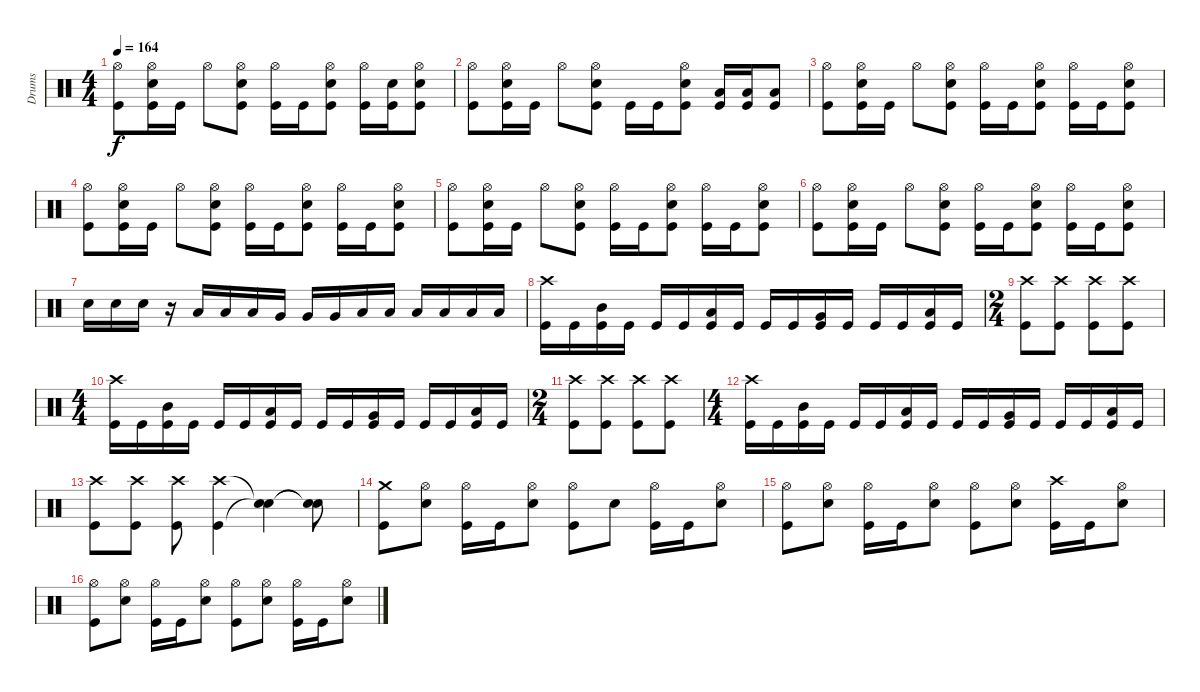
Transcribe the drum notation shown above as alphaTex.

\track ("Drums" "Drums") {instrument percussion}
\staff {score}
\articulation defaults
\ts (4 4)
\tempo 164
\clef neutral
\ks c
("Hi-Hat (open)" "Kick (hit)").8{dy f} ("Hi-Hat (open)" "Snare (hit) 2" "Kick (hit)").16 "Kick (hit)".16 "Hi-Hat (open)".8 ("Hi-Hat (open)" "Snare (hit) 2" "Kick (hit)").8 ("Hi-Hat (open)" "Kick (hit)").16 "Kick (hit)".16 ("Hi-Hat (open)" "Snare (hit) 2" "Kick (hit)").8 ("Hi-Hat (open)" "Kick (hit)").16 ("Snare (hit)" "Kick (hit)").16 ("Hi-Hat (open)" "Snare (hit) 2" "Kick (hit)").8 |
("Hi-Hat (open)" "Kick (hit)").8 ("Hi-Hat (open)" "Snare (hit) 2" "Kick (hit)").16 "Kick (hit)".16 "Hi-Hat (open)".8 ("Hi-Hat (open)" "Snare (hit) 2" "Kick (hit)").8 "Kick (hit)".16 "Kick (hit)".16 ("Hi-Hat (open)" "Snare (hit) 2" "Kick (hit)").8 ("Low Floor Tom (hit)" "Kick (hit)").16 ("Low Floor Tom (hit)" "Kick (hit)").16 ("Low Floor Tom (hit)" "Kick (hit)").8 |
("Hi-Hat (open)" "Kick (hit)").8 ("Hi-Hat (open)" "Snare (hit) 2" "Kick (hit)").16 "Kick (hit)".16 "Hi-Hat (open)".8 ("Hi-Hat (open)" "Snare (hit) 2" "Kick (hit)").8 ("Hi-Hat (open)" "Kick (hit)").16 "Kick (hit)".16 ("Hi-Hat (open)" "Snare (hit) 2" "Kick (hit)").8 ("Hi-Hat (open)" "Kick (hit)").16 "Kick (hit)".16 ("Hi-Hat (open)" "Snare (hit) 2" "Kick (hit)").8 |
("Hi-Hat (open)" "Kick (hit)").8 ("Hi-Hat (open)" "Snare (hit) 2" "Kick (hit)").16 "Kick (hit)".16 "Hi-Hat (open)".8 ("Hi-Hat (open)" "Snare (hit) 2" "Kick (hit)").8 ("Hi-Hat (open)" "Kick (hit)").16 "Kick (hit)".16 ("Hi-Hat (open)" "Snare (hit) 2" "Kick (hit)").8 ("Hi-Hat (open)" "Kick (hit)").16 "Kick (hit)".16 ("Hi-Hat (open)" "Snare (hit) 2" "Kick (hit)").8 |
("Hi-Hat (open)" "Kick (hit)").8 ("Hi-Hat (open)" "Snare (hit) 2" "Kick (hit)").16 "Kick (hit)".16 "Hi-Hat (open)".8 ("Hi-Hat (open)" "Snare (hit) 2" "Kick (hit)").8 ("Hi-Hat (open)" "Kick (hit)").16 "Kick (hit)".16 ("Hi-Hat (open)" "Snare (hit) 2" "Kick (hit)").8 ("Hi-Hat (open)" "Kick (hit)").16 "Kick (hit)".16 ("Hi-Hat (open)" "Snare (hit) 2" "Kick (hit)").8 |
("Hi-Hat (open)" "Kick (hit)").8 ("Hi-Hat (open)" "Snare (hit) 2" "Kick (hit)").16 "Kick (hit)".16 "Hi-Hat (open)".8 ("Hi-Hat (open)" "Snare (hit) 2" "Kick (hit)").8 ("Hi-Hat (open)" "Kick (hit)").16 "Kick (hit)".16 ("Hi-Hat (open)" "Snare (hit) 2" "Kick (hit)").8 ("Hi-Hat (open)" "Kick (hit)").16 "Kick (hit)".16 ("Hi-Hat (open)" "Snare (hit) 2" "Kick (hit)").8 |
"Snare (hit) 2".16 "Snare (hit) 2".16 "Snare (hit) 2".16 r.16 "Low Tom (hit)".16 "Low Tom (hit)".16 "Low Tom (hit)".16 "Very Low Tom (hit)".16 "Very Low Tom (hit)".16 "Very Low Tom (hit)".16 "Low Floor Tom (hit)".16 "Low Floor Tom (hit)".16 "Low Floor Tom (hit)".16 "Low Floor Tom (hit)".16 "Low Floor Tom (hit)".16 "Low Floor Tom (hit)".16 |
("Crash high (hit)" "Kick (hit)").16 "Kick (hit)".16 ("Mid Tom (hit)" "Kick (hit)").16 "Kick (hit)".16 "Kick (hit)".16 "Kick (hit)".16 ("Low Tom (hit)" "Kick (hit)").16 "Kick (hit)".16 "Kick (hit)".16 "Kick (hit)".16 ("Very Low Tom (hit)" "Kick (hit)").16 "Kick (hit)".16 "Kick (hit)".16 "Kick (hit)".16 ("Low Floor Tom (hit)" "Kick (hit)").16 "Kick (hit)".16 |
\ts (2 4)
("Crash high (hit)" "Kick (hit)").8 ("Crash high (hit)" "Kick (hit)").8 ("Crash high (hit)" "Kick (hit)").8 ("Crash high (hit)" "Kick (hit)").8 |
\ts (4 4)
("Crash high (hit)" "Kick (hit)").16 "Kick (hit)".16 ("Mid Tom (hit)" "Kick (hit)").16 "Kick (hit)".16 "Kick (hit)".16 "Kick (hit)".16 ("Low Tom (hit)" "Kick (hit)").16 "Kick (hit)".16 "Kick (hit)".16 "Kick (hit)".16 ("Very Low Tom (hit)" "Kick (hit)").16 "Kick (hit)".16 "Kick (hit)".16 "Kick (hit)".16 ("Low Floor Tom (hit)" "Kick (hit)").16 "Kick (hit)".16 |
\ts (2 4)
("Crash high (hit)" "Kick (hit)").8 ("Crash high (hit)" "Kick (hit)").8 ("Crash high (hit)" "Kick (hit)").8 ("Crash high (hit)" "Kick (hit)").8 |
\ts (4 4)
("Crash high (hit)" "Kick (hit)").16 "Kick (hit)".16 ("Mid Tom (hit)" "Kick (hit)").16 "Kick (hit)".16 "Kick (hit)".16 "Kick (hit)".16 ("Low Tom (hit)" "Kick (hit)").16 "Kick (hit)".16 "Kick (hit)".16 "Kick (hit)".16 ("Very Low Tom (hit)" "Kick (hit)").16 "Kick (hit)".16 "Kick (hit)".16 "Kick (hit)".16 ("Low Floor Tom (hit)" "Kick (hit)").16 "Kick (hit)".16 |
("Crash high (hit)" "Kick (hit)").8 ("Crash high (hit)" "Kick (hit)").8 ("Crash high (hit)" "Kick (hit)").8 ("Crash high (hit)" "Kick (hit)").4 ("Snare (hit)"{t} "Snare (hit)"{t}).4 ("Snare (hit)"{t} "Snare (hit)"{t}).8 |
("Crash medium (hit)" "Kick (hit)").8 ("Hi-Hat (open)" "Snare (hit) 2").8 ("Hi-Hat (open)" "Kick (hit)").16 "Kick (hit)".16 ("Hi-Hat (open)" "Snare (hit) 2").8 ("Hi-Hat (open)" "Kick (hit)").8 "Snare (hit) 2".8 ("Hi-Hat (open)" "Kick (hit)").16 "Kick (hit)".16 ("Hi-Hat (open)" "Snare (hit) 2").8 |
("Hi-Hat (open)" "Kick (hit)").8 ("Hi-Hat (open)" "Snare (hit) 2").8 ("Hi-Hat (open)" "Kick (hit)").16 "Kick (hit)".16 ("Hi-Hat (open)" "Snare (hit) 2").8 ("Hi-Hat (open)" "Kick (hit)").8 ("Hi-Hat (open)" "Snare (hit) 2").8 ("Crash high (hit)" "Kick (hit)").16 "Kick (hit)".16 ("Hi-Hat (open)" "Snare (hit) 2").8 |
("Hi-Hat (open)" "Kick (hit)").8 ("Hi-Hat (open)" "Snare (hit) 2").8 ("Hi-Hat (open)" "Kick (hit)").16 "Kick (hit)".16 ("Hi-Hat (open)" "Snare (hit) 2").8 ("Hi-Hat (open)" "Kick (hit)").8 ("Hi-Hat (open)" "Snare (hit) 2").8 ("Hi-Hat (open)" "Kick (hit)").16 "Kick (hit)".16 ("Hi-Hat (open)" "Snare (hit) 2").8
